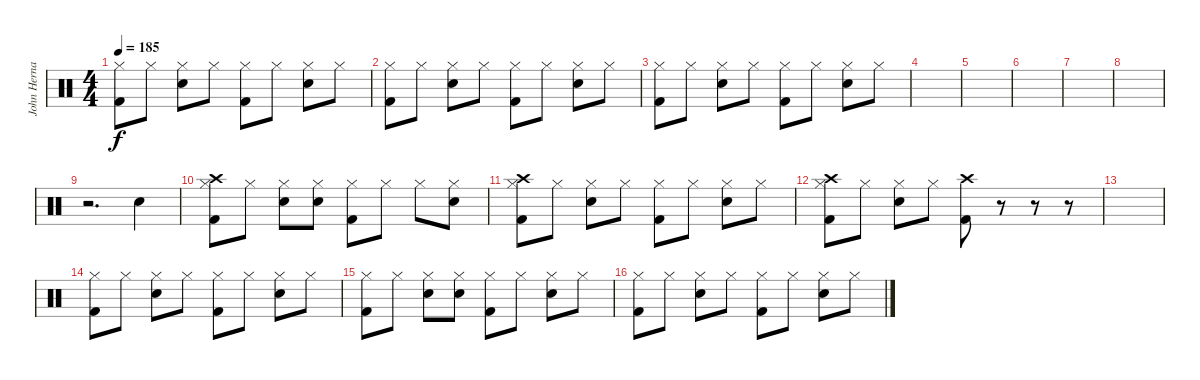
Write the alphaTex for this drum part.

\track ("John Hernandez" "John Herna") {instrument percussion}
\staff {score}
\articulation defaults
\ts (4 4)
\tempo 185
\clef neutral
\ks c
("Hi-Hat (closed)" "Kick (hit) 2").8{dy f} "Hi-Hat (closed)".8 ("Hi-Hat (closed)" "Snare (hit) 2").8 "Hi-Hat (closed)".8 ("Hi-Hat (closed)" "Kick (hit) 2").8 "Hi-Hat (closed)".8 ("Hi-Hat (closed)" "Snare (hit) 2").8 "Hi-Hat (closed)".8 |
("Hi-Hat (closed)" "Kick (hit) 2").8 "Hi-Hat (closed)".8 ("Hi-Hat (closed)" "Snare (hit) 2").8 "Hi-Hat (closed)".8 ("Hi-Hat (closed)" "Kick (hit) 2").8 "Hi-Hat (closed)".8 ("Hi-Hat (closed)" "Snare (hit) 2").8 "Hi-Hat (closed)".8 |
("Hi-Hat (closed)" "Kick (hit) 2").8 "Hi-Hat (closed)".8 ("Hi-Hat (closed)" "Snare (hit) 2").8 "Hi-Hat (closed)".8 ("Hi-Hat (closed)" "Kick (hit) 2").8 "Hi-Hat (closed)".8 ("Hi-Hat (closed)" "Snare (hit) 2").8 "Hi-Hat (closed)".8 |
|
|
|
|
|
r.2{d} "Snare (hit) 2".4 |
("Crash high (hit)" "Hi-Hat (closed)" "Kick (hit) 2").8 "Hi-Hat (closed)".8 ("Hi-Hat (closed)" "Snare (hit) 2").8 ("Hi-Hat (closed)" "Snare (hit) 2").8 ("Hi-Hat (closed)" "Kick (hit) 2").8 "Hi-Hat (closed)".8 "Hi-Hat (closed)".8 ("Hi-Hat (closed)" "Snare (hit) 2").8 |
("Crash high (hit)" "Hi-Hat (closed)" "Kick (hit) 2").8 "Hi-Hat (closed)".8 ("Hi-Hat (closed)" "Snare (hit) 2").8 "Hi-Hat (closed)".8 ("Hi-Hat (closed)" "Kick (hit) 2").8 "Hi-Hat (closed)".8 ("Hi-Hat (closed)" "Snare (hit) 2").8 "Hi-Hat (closed)".8 |
("Crash high (hit)" "Hi-Hat (closed)" "Kick (hit) 2").8 "Hi-Hat (closed)".8 ("Hi-Hat (closed)" "Snare (hit) 2").8 "Hi-Hat (closed)".8 ("Crash high (hit)" "Kick (hit) 2").8 r.8 r.8 r.8 |
|
("Hi-Hat (closed)" "Kick (hit) 2").8 "Hi-Hat (closed)".8 ("Hi-Hat (closed)" "Snare (hit) 2").8 "Hi-Hat (closed)".8 ("Hi-Hat (closed)" "Kick (hit) 2").8 "Hi-Hat (closed)".8 ("Hi-Hat (closed)" "Snare (hit) 2").8 "Hi-Hat (closed)".8 |
("Hi-Hat (closed)" "Kick (hit) 2").8 "Hi-Hat (closed)".8 ("Hi-Hat (closed)" "Snare (hit) 2").8 ("Hi-Hat (closed)" "Snare (hit) 2").8 ("Hi-Hat (closed)" "Kick (hit) 2").8 "Hi-Hat (closed)".8 ("Hi-Hat (closed)" "Snare (hit) 2").8 "Hi-Hat (closed)".8 |
("Hi-Hat (closed)" "Kick (hit) 2").8 "Hi-Hat (closed)".8 ("Hi-Hat (closed)" "Snare (hit) 2").8 "Hi-Hat (closed)".8 ("Hi-Hat (closed)" "Kick (hit) 2").8 "Hi-Hat (closed)".8 ("Hi-Hat (closed)" "Snare (hit) 2").8 "Hi-Hat (closed)".8
